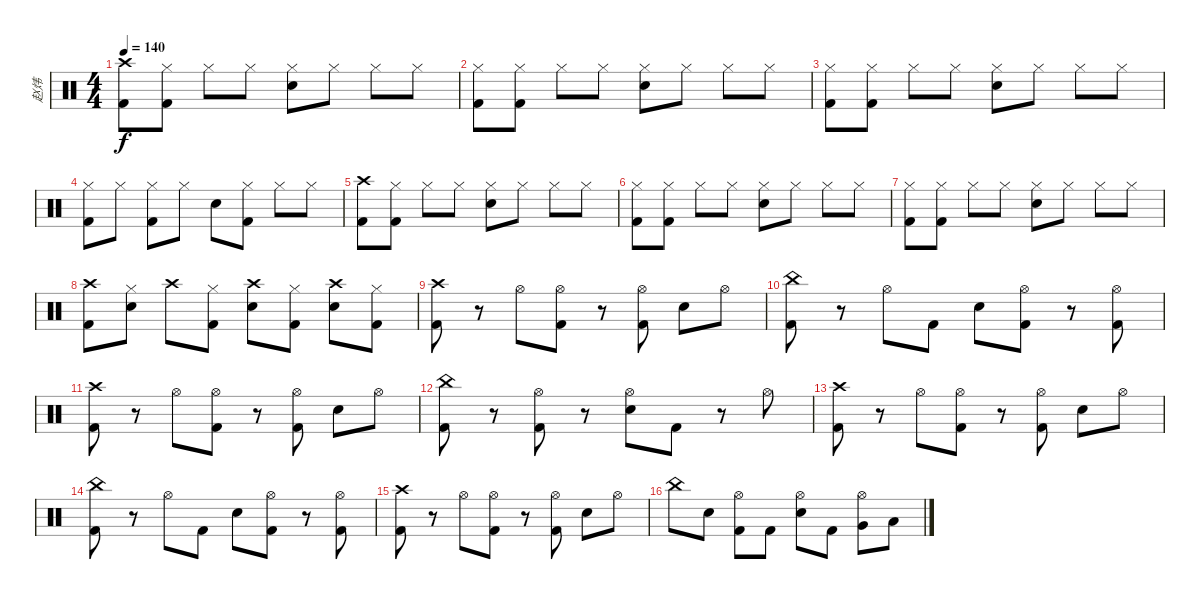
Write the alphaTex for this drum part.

\track ("赵炜" "赵炜") {instrument percussion}
\staff {score}
\articulation defaults
\ts (4 4)
\tempo 140
\clef neutral
\ks c
("Crash high (hit)" "Kick (hit) 2").8{dy f} ("Hi-Hat (closed)" "Kick (hit) 2").8 "Hi-Hat (closed)".8 "Hi-Hat (closed)".8 ("Hi-Hat (closed)" "Snare (hit) 2").8 "Hi-Hat (closed)".8 "Hi-Hat (closed)".8 "Hi-Hat (closed)".8 |
("Hi-Hat (closed)" "Kick (hit) 2").8 ("Hi-Hat (closed)" "Kick (hit) 2").8 "Hi-Hat (closed)".8 "Hi-Hat (closed)".8 ("Hi-Hat (closed)" "Snare (hit) 2").8 "Hi-Hat (closed)".8 "Hi-Hat (closed)".8 "Hi-Hat (closed)".8 |
("Hi-Hat (closed)" "Kick (hit) 2").8 ("Hi-Hat (closed)" "Kick (hit) 2").8 "Hi-Hat (closed)".8 "Hi-Hat (closed)".8 ("Hi-Hat (closed)" "Snare (hit) 2").8 "Hi-Hat (closed)".8 "Hi-Hat (closed)".8 "Hi-Hat (closed)".8 |
("Hi-Hat (closed)" "Kick (hit) 2").8 "Hi-Hat (closed)".8 ("Hi-Hat (closed)" "Kick (hit) 2").8 "Hi-Hat (closed)".8 "Snare (hit) 2".8 ("Hi-Hat (closed)" "Kick (hit) 2").8 "Hi-Hat (closed)".8 "Hi-Hat (closed)".8 |
("Crash high (hit)" "Kick (hit) 2").8 ("Hi-Hat (closed)" "Kick (hit) 2").8 "Hi-Hat (closed)".8 "Hi-Hat (closed)".8 ("Hi-Hat (closed)" "Snare (hit) 2").8 "Hi-Hat (closed)".8 "Hi-Hat (closed)".8 "Hi-Hat (closed)".8 |
("Hi-Hat (closed)" "Kick (hit) 2").8 ("Hi-Hat (closed)" "Kick (hit) 2").8 "Hi-Hat (closed)".8 "Hi-Hat (closed)".8 ("Hi-Hat (closed)" "Snare (hit) 2").8 "Hi-Hat (closed)".8 "Hi-Hat (closed)".8 "Hi-Hat (closed)".8 |
("Hi-Hat (closed)" "Kick (hit) 2").8 ("Hi-Hat (closed)" "Kick (hit) 2").8 "Hi-Hat (closed)".8 "Hi-Hat (closed)".8 ("Hi-Hat (closed)" "Snare (hit) 2").8 "Hi-Hat (closed)".8 "Hi-Hat (closed)".8 "Hi-Hat (closed)".8 |
("Crash high (hit)" "Kick (hit) 2").8 ("Hi-Hat (closed)" "Snare (hit) 2").8 "Crash high (hit)".8 ("Hi-Hat (closed)" "Kick (hit) 2").8 ("Crash high (hit)" "Snare (hit) 2").8 ("Hi-Hat (closed)" "Kick (hit) 2").8 ("Crash high (hit)" "Snare (hit) 2").8 ("Hi-Hat (closed)" "Kick (hit) 2").8 |
("Crash high (hit)" "Kick (hit) 2").8 r.8 "Hi-Hat (open)".8 ("Hi-Hat (open)" "Kick (hit) 2").8 r.8 ("Hi-Hat (open)" "Kick (hit) 2").8 "Snare (hit) 2".8 "Hi-Hat (open)".8 |
("China (hit)" "Kick (hit) 2").8 r.8 "Hi-Hat (open)".8 "Kick (hit) 2".8 "Snare (hit) 2".8 ("Hi-Hat (open)" "Kick (hit) 2").8 r.8 ("Hi-Hat (open)" "Kick (hit) 2").8 |
("Crash high (hit)" "Kick (hit) 2").8 r.8 "Hi-Hat (open)".8 ("Hi-Hat (open)" "Kick (hit) 2").8 r.8 ("Hi-Hat (open)" "Kick (hit) 2").8 "Snare (hit) 2".8 "Hi-Hat (open)".8 |
("China (hit)" "Kick (hit) 2").8 r.8 ("Hi-Hat (open)" "Kick (hit) 2").8 r.8 ("Hi-Hat (open)" "Snare (hit) 2").8 "Kick (hit) 2".8 r.8 "Hi-Hat (open)".8 |
("Crash high (hit)" "Kick (hit) 2").8 r.8 "Hi-Hat (open)".8 ("Hi-Hat (open)" "Kick (hit) 2").8 r.8 ("Hi-Hat (open)" "Kick (hit) 2").8 "Snare (hit) 2".8 "Hi-Hat (open)".8 |
("China (hit)" "Kick (hit) 2").8 r.8 "Hi-Hat (open)".8 "Kick (hit) 2".8 "Snare (hit) 2".8 ("Hi-Hat (open)" "Kick (hit) 2").8 r.8 ("Hi-Hat (open)" "Kick (hit) 2").8 |
("Crash high (hit)" "Kick (hit) 2").8 r.8 "Hi-Hat (open)".8 ("Hi-Hat (open)" "Kick (hit) 2").8 r.8 ("Hi-Hat (open)" "Kick (hit) 2").8 "Snare (hit) 2".8 "Hi-Hat (open)".8 |
"China (hit)".8 "Snare (hit) 2".8 ("Hi-Hat (open)" "Kick (hit) 2").8 "Kick (hit) 2".8 ("Hi-Hat (open)" "Snare (hit) 2").8 "Kick (hit) 2".8 ("Hi-Hat (open)" "Very Low Tom (hit)").8 "Low Floor Tom (hit)".8
